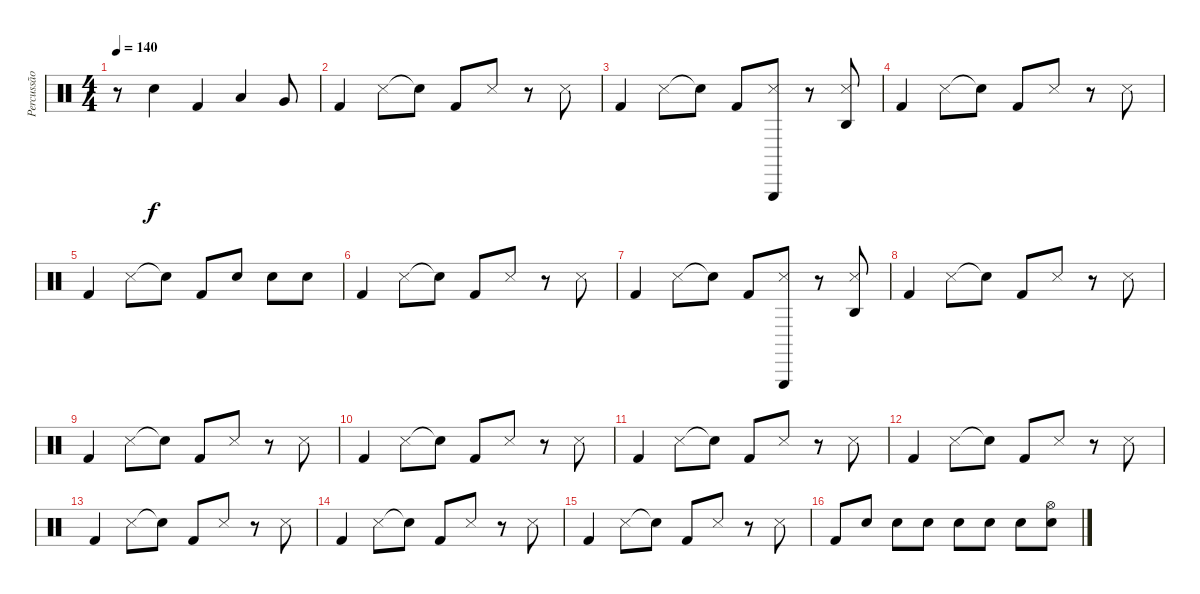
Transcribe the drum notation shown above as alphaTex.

\track ("Percussão" "Percussão") {instrument percussion}
\staff {score}
\articulation defaults
\ts (4 4)
\tempo 140
\clef neutral
\ks c
r.8{dy f} "Snare (hit) 2".4 "Kick (hit) 2".4 "Low Tom (hit)".4 "Very Low Tom (hit)".8 |
"Kick (hit) 2".4 "Snare (side stick) 3".8 "Snare (hit)"{t}.8 "Kick (hit) 2".8 "Snare (side stick) 3".8 r.8 "Snare (side stick) 3".8 |
"Kick (hit) 2".4 "Snare (side stick) 3".8 "Snare (hit)"{t}.8 "Kick (hit) 2".8 ("Triangle (hit)" "Snare (side stick) 3").8 r.8 ("Agogo high (hit)" "Snare (side stick) 3").8 |
"Kick (hit) 2".4 "Snare (side stick) 3".8 "Snare (hit)"{t}.8 "Kick (hit) 2".8 "Snare (side stick) 3".8 r.8 "Snare (side stick) 3".8 |
"Kick (hit) 2".4 "Snare (side stick) 3".8 "Snare (hit)"{t}.8 "Kick (hit) 2".8 "Snare (hit) 2".8 "Snare (hit) 2".8 "Snare (hit) 2".8 |
"Kick (hit) 2".4 "Snare (side stick) 3".8 "Snare (hit)"{t}.8 "Kick (hit) 2".8 "Snare (side stick) 3".8 r.8 "Snare (side stick) 3".8 |
"Kick (hit) 2".4 "Snare (side stick) 3".8 "Snare (hit)"{t}.8 "Kick (hit) 2".8 ("Triangle (hit)" "Snare (side stick) 3").8 r.8 ("Agogo high (hit)" "Snare (side stick) 3").8 |
"Kick (hit) 2".4 "Snare (side stick) 3".8 "Snare (hit)"{t}.8 "Kick (hit) 2".8 "Snare (side stick) 3".8 r.8 "Snare (side stick) 3".8 |
"Kick (hit) 2".4 "Snare (side stick) 3".8 "Snare (hit)"{t}.8 "Kick (hit) 2".8 "Snare (side stick) 3".8 r.8 "Snare (side stick) 3".8 |
"Kick (hit) 2".4 "Snare (side stick) 3".8 "Snare (hit)"{t}.8 "Kick (hit) 2".8 "Snare (side stick) 3".8 r.8 "Snare (side stick) 3".8 |
"Kick (hit) 2".4 "Snare (side stick) 3".8 "Snare (hit)"{t}.8 "Kick (hit) 2".8 "Snare (side stick) 3".8 r.8 "Snare (side stick) 3".8 |
"Kick (hit) 2".4 "Snare (side stick) 3".8 "Snare (hit)"{t}.8 "Kick (hit) 2".8 "Snare (side stick) 3".8 r.8 "Snare (side stick) 3".8 |
"Kick (hit) 2".4 "Snare (side stick) 3".8 "Snare (hit)"{t}.8 "Kick (hit) 2".8 "Snare (side stick) 3".8 r.8 "Snare (side stick) 3".8 |
"Kick (hit) 2".4 "Snare (side stick) 3".8 "Snare (hit)"{t}.8 "Kick (hit) 2".8 "Snare (side stick) 3".8 r.8 "Snare (side stick) 3".8 |
"Kick (hit) 2".4 "Snare (side stick) 3".8 "Snare (hit)"{t}.8 "Kick (hit) 2".8 "Snare (side stick) 3".8 r.8 "Snare (side stick) 3".8 |
"Kick (hit) 2".8 "Snare (hit) 2".8 "Snare (hit) 2".8 "Snare (hit) 2".8 "Snare (hit) 2".8 "Snare (hit) 2".8 "Snare (hit) 2".8 ("Hi-Hat (open)" "Snare (hit) 2").8
